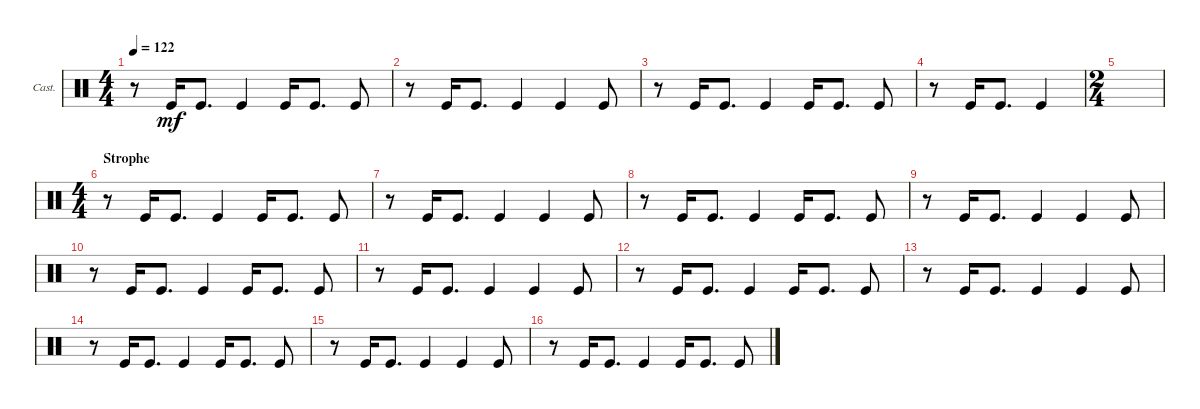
\defaultSystemsLayout 4
\bracketExtendMode groupsimilarinstruments
\firstSystemTrackNameOrientation horizontal
\otherSystemsTrackNameOrientation horizontal
\track ("Castanets" "Cast.") {instrument percussion}
\staff {score}
\articulation defaults
\ts (4 4)
\tempo 122
\clef neutral
\ks c
r.8{dy mf} "Kick (hit)".16 "Kick (hit)".8{d} "Kick (hit)".4 "Kick (hit)".16 "Kick (hit)".8{d} "Kick (hit)".8 |
r.8 "Kick (hit)".16 "Kick (hit)".8{d} "Kick (hit)".4 "Kick (hit)".4 "Kick (hit)".8 |
r.8 "Kick (hit)".16 "Kick (hit)".8{d} "Kick (hit)".4 "Kick (hit)".16 "Kick (hit)".8{d} "Kick (hit)".8 |
r.8 "Kick (hit)".16 "Kick (hit)".8{d} "Kick (hit)".4 |
\ts (2 4)
|
\ts (4 4)
\section ("" "Strophe")
r.8 "Kick (hit)".16 "Kick (hit)".8{d} "Kick (hit)".4 "Kick (hit)".16 "Kick (hit)".8{d} "Kick (hit)".8 |
r.8 "Kick (hit)".16 "Kick (hit)".8{d} "Kick (hit)".4 "Kick (hit)".4 "Kick (hit)".8 |
r.8 "Kick (hit)".16 "Kick (hit)".8{d} "Kick (hit)".4 "Kick (hit)".16 "Kick (hit)".8{d} "Kick (hit)".8 |
r.8 "Kick (hit)".16 "Kick (hit)".8{d} "Kick (hit)".4 "Kick (hit)".4 "Kick (hit)".8 |
r.8 "Kick (hit)".16 "Kick (hit)".8{d} "Kick (hit)".4 "Kick (hit)".16 "Kick (hit)".8{d} "Kick (hit)".8 |
r.8 "Kick (hit)".16 "Kick (hit)".8{d} "Kick (hit)".4 "Kick (hit)".4 "Kick (hit)".8 |
r.8 "Kick (hit)".16 "Kick (hit)".8{d} "Kick (hit)".4 "Kick (hit)".16 "Kick (hit)".8{d} "Kick (hit)".8 |
r.8 "Kick (hit)".16 "Kick (hit)".8{d} "Kick (hit)".4 "Kick (hit)".4 "Kick (hit)".8 |
r.8 "Kick (hit)".16 "Kick (hit)".8{d} "Kick (hit)".4 "Kick (hit)".16 "Kick (hit)".8{d} "Kick (hit)".8 |
r.8 "Kick (hit)".16 "Kick (hit)".8{d} "Kick (hit)".4 "Kick (hit)".4 "Kick (hit)".8 |
r.8 "Kick (hit)".16 "Kick (hit)".8{d} "Kick (hit)".4 "Kick (hit)".16 "Kick (hit)".8{d} "Kick (hit)".8
